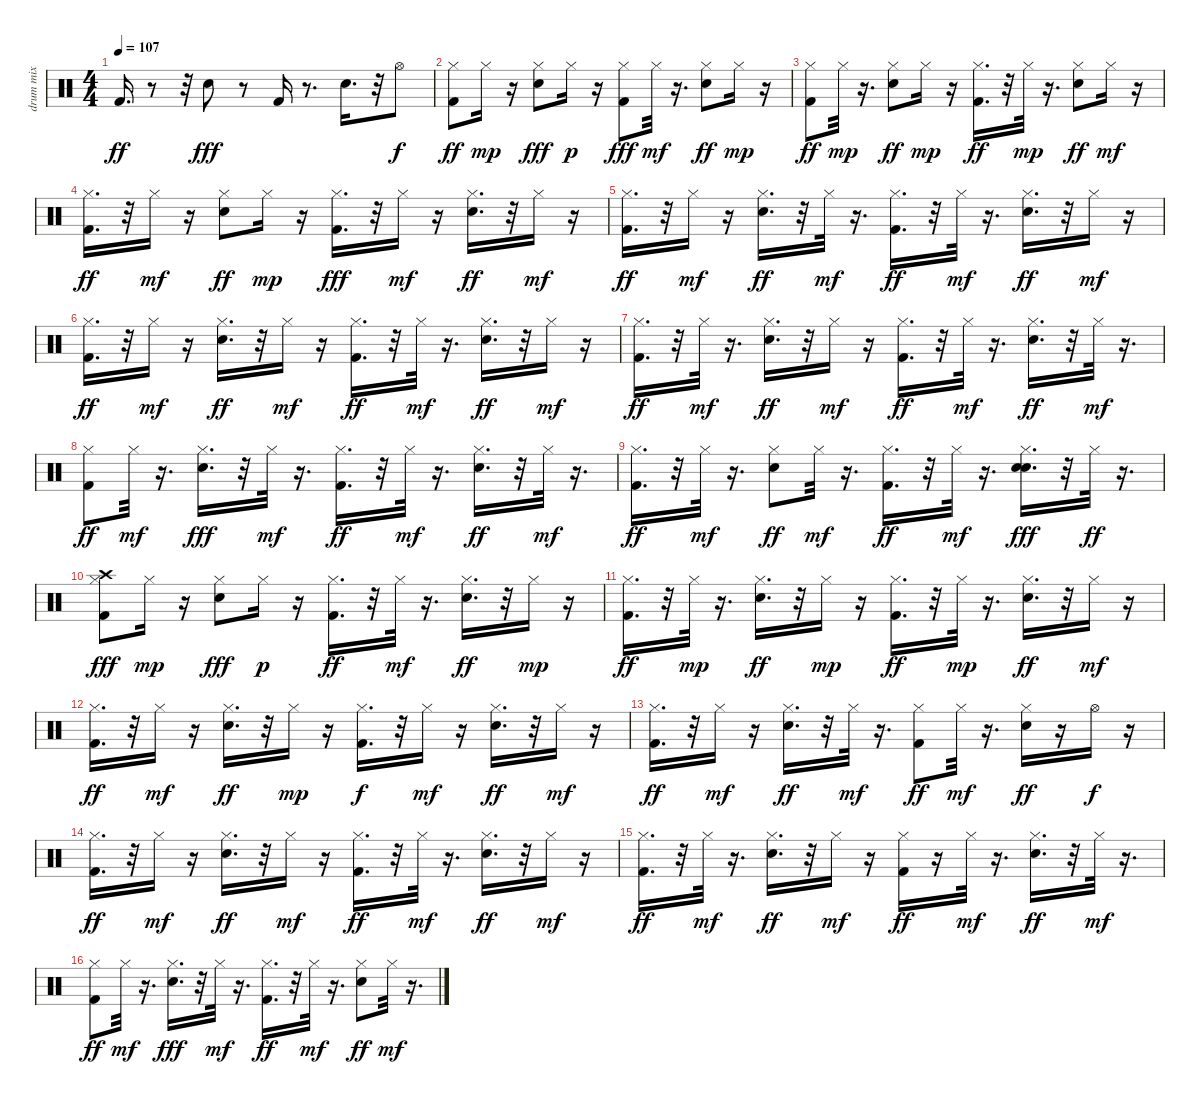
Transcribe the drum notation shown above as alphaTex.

\track ("drum mix" "drum mix") {instrument percussion}
\staff {score}
\articulation defaults
\ts (4 4)
\tempo 107
\clef neutral
\ks c "Kick (hit) 2".16{d dy ff}
r.8 r.32 "Electric Snare (hit)".8{dy fff} r.8 "Kick (hit) 2".16 r.8{d} "Electric Snare (hit)".16{d} r.32 "Hi-Hat (open)".8{dy f} |
("Kick (hit) 2" "Hi-Hat (closed)").8{dy ff} "Hi-Hat (closed)".16{dy mp} r.16 ("Electric Snare (hit)" "Hi-Hat (closed)").8{dy fff} "Hi-Hat (closed)".16{dy p} r.16 ("Kick (hit) 2" "Hi-Hat (closed)").8{dy fff} "Hi-Hat (closed)".32{dy mf} r.16{d} ("Electric Snare (hit)" "Hi-Hat (closed)").8{dy ff} "Hi-Hat (closed)".16{dy mp} r.16 |
("Kick (hit) 2" "Hi-Hat (closed)").8{dy ff} "Hi-Hat (closed)".32{dy mp} r.16{d} ("Electric Snare (hit)" "Hi-Hat (closed)").8{dy ff} "Hi-Hat (closed)".16{dy mp} r.16 ("Kick (hit) 2" "Hi-Hat (closed)").16{d dy ff} r.32 "Hi-Hat (closed)".32{dy mp} r.16{d} ("Electric Snare (hit)" "Hi-Hat (closed)").8{dy ff} "Hi-Hat (closed)".16{dy mf} r.16 |
("Kick (hit) 2" "Hi-Hat (closed)").16{d dy ff} r.32 "Hi-Hat (closed)".16{dy mf} r.16 ("Electric Snare (hit)" "Hi-Hat (closed)").8{dy ff} "Hi-Hat (closed)".16{dy mp} r.16 ("Kick (hit) 2" "Hi-Hat (closed)").16{d dy fff} r.32 "Hi-Hat (closed)".16{dy mf} r.16 ("Electric Snare (hit)" "Hi-Hat (closed)").16{d dy ff} r.32 "Hi-Hat (closed)".16{dy mf} r.16 |
("Kick (hit) 2" "Hi-Hat (closed)").16{d dy ff} r.32 "Hi-Hat (closed)".16{dy mf} r.16 ("Electric Snare (hit)" "Hi-Hat (closed)").16{d dy ff} r.32 "Hi-Hat (closed)".32{dy mf} r.16{d} ("Kick (hit) 2" "Hi-Hat (closed)").16{d dy ff} r.32 "Hi-Hat (closed)".32{dy mf} r.16{d} ("Electric Snare (hit)" "Hi-Hat (closed)").16{d dy ff} r.32 "Hi-Hat (closed)".16{dy mf} r.16 |
("Kick (hit) 2" "Hi-Hat (closed)").16{d dy ff} r.32 "Hi-Hat (closed)".16{dy mf} r.16 ("Electric Snare (hit)" "Hi-Hat (closed)").16{d dy ff} r.32 "Hi-Hat (closed)".16{dy mf} r.16 ("Kick (hit) 2" "Hi-Hat (closed)").16{d dy ff} r.32 "Hi-Hat (closed)".32{dy mf} r.16{d} ("Electric Snare (hit)" "Hi-Hat (closed)").16{d dy ff} r.32 "Hi-Hat (closed)".16{dy mf} r.16 |
("Kick (hit) 2" "Hi-Hat (closed)").16{d dy ff} r.32 "Hi-Hat (closed)".32{dy mf} r.16{d} ("Electric Snare (hit)" "Hi-Hat (closed)").16{d dy ff} r.32 "Hi-Hat (closed)".16{dy mf} r.16 ("Kick (hit) 2" "Hi-Hat (closed)").16{d dy ff} r.32 "Hi-Hat (closed)".32{dy mf} r.16{d} ("Electric Snare (hit)" "Hi-Hat (closed)").16{d dy ff} r.32 "Hi-Hat (closed)".32{dy mf} r.16{d} |
("Kick (hit) 2" "Hi-Hat (closed)").8{dy ff} "Hi-Hat (closed)".32{dy mf} r.16{d} ("Electric Snare (hit)" "Hi-Hat (closed)").16{d dy fff} r.32 "Hi-Hat (closed)".32{dy mf} r.16{d} ("Kick (hit) 2" "Hi-Hat (closed)").16{d dy ff} r.32 "Hi-Hat (closed)".32{dy mf} r.16{d} ("Electric Snare (hit)" "Hi-Hat (closed)").16{d dy ff} r.32 "Hi-Hat (closed)".32{dy mf} r.16{d} |
("Kick (hit) 2" "Hi-Hat (closed)").16{d dy ff} r.32 "Hi-Hat (closed)".32{dy mf} r.16{d} ("Electric Snare (hit)" "Hi-Hat (closed)").8{dy ff} "Hi-Hat (closed)".32{dy mf} r.16{d} ("Kick (hit) 2" "Hi-Hat (closed)").16{d dy ff} r.32 "Hi-Hat (closed)".32{dy mf} r.16{d} ("Electric Snare (hit)" "Hi-Hat (closed)" "Electric Snare (hit)").16{d dy fff} r.32 "Hi-Hat (closed)".32{dy ff} r.16{d} |
("Kick (hit) 2" "Hi-Hat (closed)" "Crash high (hit)").8{dy fff} "Hi-Hat (closed)".16{dy mp} r.16 ("Electric Snare (hit)" "Hi-Hat (closed)").8{dy fff} "Hi-Hat (closed)".16{dy p} r.16 ("Kick (hit) 2" "Hi-Hat (closed)").16{d dy ff} r.32 "Hi-Hat (closed)".32{dy mf} r.16{d} ("Electric Snare (hit)" "Hi-Hat (closed)").16{d dy ff} r.32 "Hi-Hat (closed)".16{dy mp} r.16 |
("Kick (hit) 2" "Hi-Hat (closed)").16{d dy ff} r.32 "Hi-Hat (closed)".32{dy mp} r.16{d} ("Electric Snare (hit)" "Hi-Hat (closed)").16{d dy ff} r.32 "Hi-Hat (closed)".16{dy mp} r.16 ("Kick (hit) 2" "Hi-Hat (closed)").16{d dy ff} r.32 "Hi-Hat (closed)".32{dy mp} r.16{d} ("Electric Snare (hit)" "Hi-Hat (closed)").16{d dy ff} r.32 "Hi-Hat (closed)".16{dy mf} r.16 |
("Kick (hit) 2" "Hi-Hat (closed)").16{d dy ff} r.32 "Hi-Hat (closed)".16{dy mf} r.16 ("Electric Snare (hit)" "Hi-Hat (closed)").16{d dy ff} r.32 "Hi-Hat (closed)".16{dy mp} r.16 ("Kick (hit) 2" "Hi-Hat (closed)").16{d dy f} r.32 "Hi-Hat (closed)".16{dy mf} r.16 ("Electric Snare (hit)" "Hi-Hat (closed)").16{d dy ff} r.32 "Hi-Hat (closed)".16{dy mf} r.16 |
("Kick (hit) 2" "Hi-Hat (closed)").16{d dy ff} r.32 "Hi-Hat (closed)".16{dy mf} r.16 ("Electric Snare (hit)" "Hi-Hat (closed)").16{d dy ff} r.32 "Hi-Hat (closed)".32{dy mf} r.16{d} ("Kick (hit) 2" "Hi-Hat (closed)").8{dy ff} "Hi-Hat (closed)".32{dy mf} r.16{d} ("Electric Snare (hit)" "Hi-Hat (closed)").16{dy ff} r.16 "Hi-Hat (open)".16{dy f} r.16 |
("Kick (hit) 2" "Hi-Hat (closed)").16{d dy ff} r.32 "Hi-Hat (closed)".16{dy mf} r.16 ("Electric Snare (hit)" "Hi-Hat (closed)").16{d dy ff} r.32 "Hi-Hat (closed)".16{dy mf} r.16 ("Kick (hit) 2" "Hi-Hat (closed)").16{d dy ff} r.32 "Hi-Hat (closed)".32{dy mf} r.16{d} ("Electric Snare (hit)" "Hi-Hat (closed)").16{d dy ff} r.32 "Hi-Hat (closed)".16{dy mf} r.16 |
("Kick (hit) 2" "Hi-Hat (closed)").16{d dy ff} r.32 "Hi-Hat (closed)".32{dy mf} r.16{d} ("Electric Snare (hit)" "Hi-Hat (closed)").16{d dy ff} r.32 "Hi-Hat (closed)".16{dy mf} r.16 ("Kick (hit) 2" "Hi-Hat (closed)").16{dy ff} r.16 "Hi-Hat (closed)".32{dy mf} r.16{d} ("Electric Snare (hit)" "Hi-Hat (closed)").16{d dy ff} r.32 "Hi-Hat (closed)".32{dy mf} r.16{d} |
("Kick (hit) 2" "Hi-Hat (closed)").8{dy ff} "Hi-Hat (closed)".32{dy mf} r.16{d} ("Electric Snare (hit)" "Hi-Hat (closed)").16{d dy fff} r.32 "Hi-Hat (closed)".32{dy mf} r.16{d} ("Kick (hit) 2" "Hi-Hat (closed)").16{d dy ff} r.32 "Hi-Hat (closed)".32{dy mf} r.16{d} ("Electric Snare (hit)" "Hi-Hat (closed)").8{dy ff} "Hi-Hat (closed)".32{dy mf} r.16{d}
